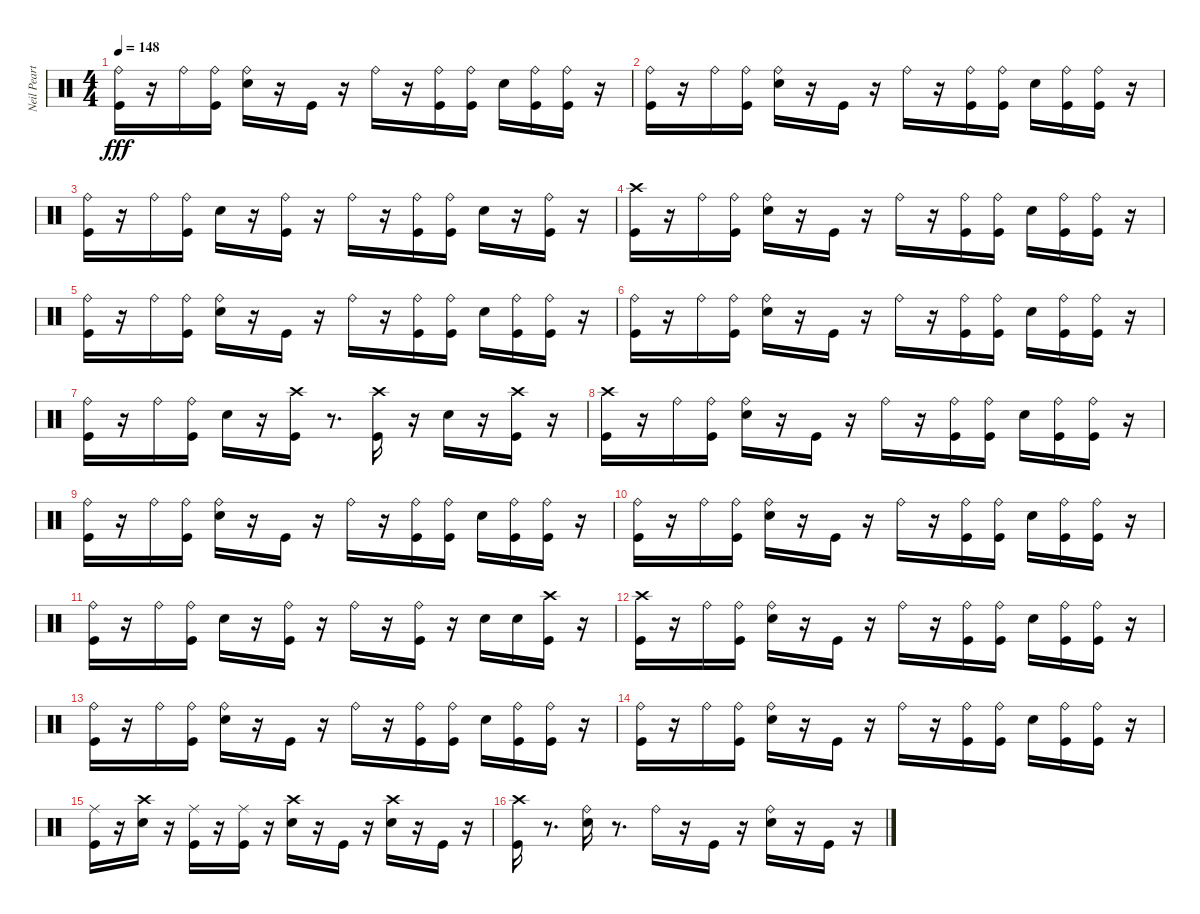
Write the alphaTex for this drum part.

\track ("Neil Peart" "Neil Peart") {instrument percussion}
\staff {score}
\articulation defaults
\ts (4 4)
\tempo 148
\clef neutral
\ks c
("Ride (bell)" "Kick (hit)").16{dy fff} r.16 "Ride (bell)".16 ("Ride (bell)" "Kick (hit)").16 ("Ride (bell)" "Snare (hit) 2").16 r.16 "Kick (hit)".16 r.16 "Ride (bell)".16 r.16 ("Ride (bell)" "Kick (hit)").16 ("Ride (bell)" "Kick (hit)").16 "Snare (hit) 2".16 ("Ride (bell)" "Kick (hit)").16 ("Ride (bell)" "Kick (hit)").16 r.16 |
("Ride (bell)" "Kick (hit)").16 r.16 "Ride (bell)".16 ("Ride (bell)" "Kick (hit)").16 ("Ride (bell)" "Snare (hit) 2").16 r.16 "Kick (hit)".16 r.16 "Ride (bell)".16 r.16 ("Ride (bell)" "Kick (hit)").16 ("Ride (bell)" "Kick (hit)").16 "Snare (hit) 2".16 ("Ride (bell)" "Kick (hit)").16 ("Ride (bell)" "Kick (hit)").16 r.16 |
("Kick (hit)" "Ride (bell)").16 r.16 "Ride (bell)".16 ("Kick (hit)" "Ride (bell)").16 "Snare (hit) 2".16 r.16 ("Kick (hit)" "Ride (bell)").16 r.16 "Ride (bell)".16 r.16 ("Kick (hit)" "Ride (bell)").16 ("Kick (hit)" "Ride (bell)").16 "Snare (hit) 2".16 r.16 ("Kick (hit)" "Ride (bell)").16 r.16 |
("Crash high (hit)" "Kick (hit)").16 r.16 "Ride (bell)".16 ("Ride (bell)" "Kick (hit)").16 ("Ride (bell)" "Snare (hit) 2").16 r.16 "Kick (hit)".16 r.16 "Ride (bell)".16 r.16 ("Ride (bell)" "Kick (hit)").16 ("Ride (bell)" "Kick (hit)").16 "Snare (hit) 2".16 ("Ride (bell)" "Kick (hit)").16 ("Ride (bell)" "Kick (hit)").16 r.16 |
("Kick (hit)" "Ride (bell)").16 r.16 "Ride (bell)".16 ("Kick (hit)" "Ride (bell)").16 ("Snare (hit) 2" "Ride (bell)").16 r.16 "Kick (hit)".16 r.16 "Ride (bell)".16 r.16 ("Kick (hit)" "Ride (bell)").16 ("Kick (hit)" "Ride (bell)").16 "Snare (hit) 2".16 ("Kick (hit)" "Ride (bell)").16 ("Kick (hit)" "Ride (bell)").16 r.16 |
("Kick (hit)" "Ride (bell)").16 r.16 "Ride (bell)".16 ("Kick (hit)" "Ride (bell)").16 ("Snare (hit) 2" "Ride (bell)").16 r.16 "Kick (hit)".16 r.16 "Ride (bell)".16 r.16 ("Kick (hit)" "Ride (bell)").16 ("Kick (hit)" "Ride (bell)").16 "Snare (hit) 2".16 ("Kick (hit)" "Ride (bell)").16 ("Kick (hit)" "Ride (bell)").16 r.16 |
("Ride (bell)" "Kick (hit)").16 r.16 "Ride (bell)".16 ("Ride (bell)" "Kick (hit)").16 "Snare (hit) 2".16 r.16 ("Crash high (hit)" "Kick (hit)").16 r.8{d} ("Crash high (hit)" "Kick (hit)").16 r.16 "Snare (hit) 2".16 r.16 ("Crash high (hit)" "Kick (hit)").16 r.16 |
("Crash high (hit)" "Kick (hit)").16 r.16 "Ride (bell)".16 ("Kick (hit)" "Ride (bell)").16 ("Snare (hit) 2" "Ride (bell)").16 r.16 "Kick (hit)".16 r.16 "Ride (bell)".16 r.16 ("Kick (hit)" "Ride (bell)").16 ("Kick (hit)" "Ride (bell)").16 "Snare (hit) 2".16 ("Kick (hit)" "Ride (bell)").16 ("Kick (hit)" "Ride (bell)").16 r.16 |
("Ride (bell)" "Kick (hit)").16 r.16 "Ride (bell)".16 ("Ride (bell)" "Kick (hit)").16 ("Ride (bell)" "Snare (hit) 2").16 r.16 "Kick (hit)".16 r.16 "Ride (bell)".16 r.16 ("Ride (bell)" "Kick (hit)").16 ("Ride (bell)" "Kick (hit)").16 "Snare (hit) 2".16 ("Ride (bell)" "Kick (hit)").16 ("Ride (bell)" "Kick (hit)").16 r.16 |
("Ride (bell)" "Kick (hit)").16 r.16 "Ride (bell)".16 ("Ride (bell)" "Kick (hit)").16 ("Ride (bell)" "Snare (hit) 2").16 r.16 "Kick (hit)".16 r.16 "Ride (bell)".16 r.16 ("Ride (bell)" "Kick (hit)").16 ("Ride (bell)" "Kick (hit)").16 "Snare (hit) 2".16 ("Ride (bell)" "Kick (hit)").16 ("Ride (bell)" "Kick (hit)").16 r.16 |
("Kick (hit)" "Ride (bell)").16 r.16 "Ride (bell)".16 ("Kick (hit)" "Ride (bell)").16 "Snare (hit) 2".16 r.16 ("Kick (hit)" "Ride (bell)").16 r.16 "Ride (bell)".16 r.16 ("Kick (hit)" "Ride (bell)").16 r.16 "Snare (hit) 2".16 "Snare (hit) 2".16 ("Kick (hit)" "Crash high (hit)").16 r.16 |
("Crash high (hit)" "Kick (hit)").16 r.16 "Ride (bell)".16 ("Ride (bell)" "Kick (hit)").16 ("Ride (bell)" "Snare (hit) 2").16 r.16 "Kick (hit)".16 r.16 "Ride (bell)".16 r.16 ("Ride (bell)" "Kick (hit)").16 ("Ride (bell)" "Kick (hit)").16 "Snare (hit) 2".16 ("Ride (bell)" "Kick (hit)").16 ("Ride (bell)" "Kick (hit)").16 r.16 |
("Ride (bell)" "Kick (hit)").16 r.16 "Ride (bell)".16 ("Ride (bell)" "Kick (hit)").16 ("Ride (bell)" "Snare (hit) 2").16 r.16 "Kick (hit)".16 r.16 "Ride (bell)".16 r.16 ("Ride (bell)" "Kick (hit)").16 ("Ride (bell)" "Kick (hit)").16 "Snare (hit) 2".16 ("Ride (bell)" "Kick (hit)").16 ("Ride (bell)" "Kick (hit)").16 r.16 |
("Ride (bell)" "Kick (hit)").16 r.16 "Ride (bell)".16 ("Ride (bell)" "Kick (hit)").16 ("Ride (bell)" "Snare (hit) 2").16 r.16 "Kick (hit)".16 r.16 "Ride (bell)".16 r.16 ("Ride (bell)" "Kick (hit)").16 ("Ride (bell)" "Kick (hit)").16 "Snare (hit) 2".16 ("Ride (bell)" "Kick (hit)").16 ("Ride (bell)" "Kick (hit)").16 r.16 |
("Kick (hit)" "Ride (middle)").16 r.16 ("Snare (hit) 2" "Crash high (hit)").16 r.16 ("Kick (hit)" "Ride (middle)").16 r.16 ("Kick (hit)" "Ride (middle)").16 r.16 ("Snare (hit) 2" "Crash high (hit)").16 r.16 "Kick (hit)".16 r.16 ("Snare (hit) 2" "Crash high (hit)").16 r.16 "Kick (hit)".16 r.16 |
("Crash high (hit)" "Kick (hit)").16 r.8{d} ("Ride (bell)" "Snare (hit) 2").16 r.8{d} "Ride (bell)".16 r.16 "Kick (hit)".16 r.16 ("Ride (bell)" "Snare (hit) 2").16 r.16 "Kick (hit)".16 r.16
